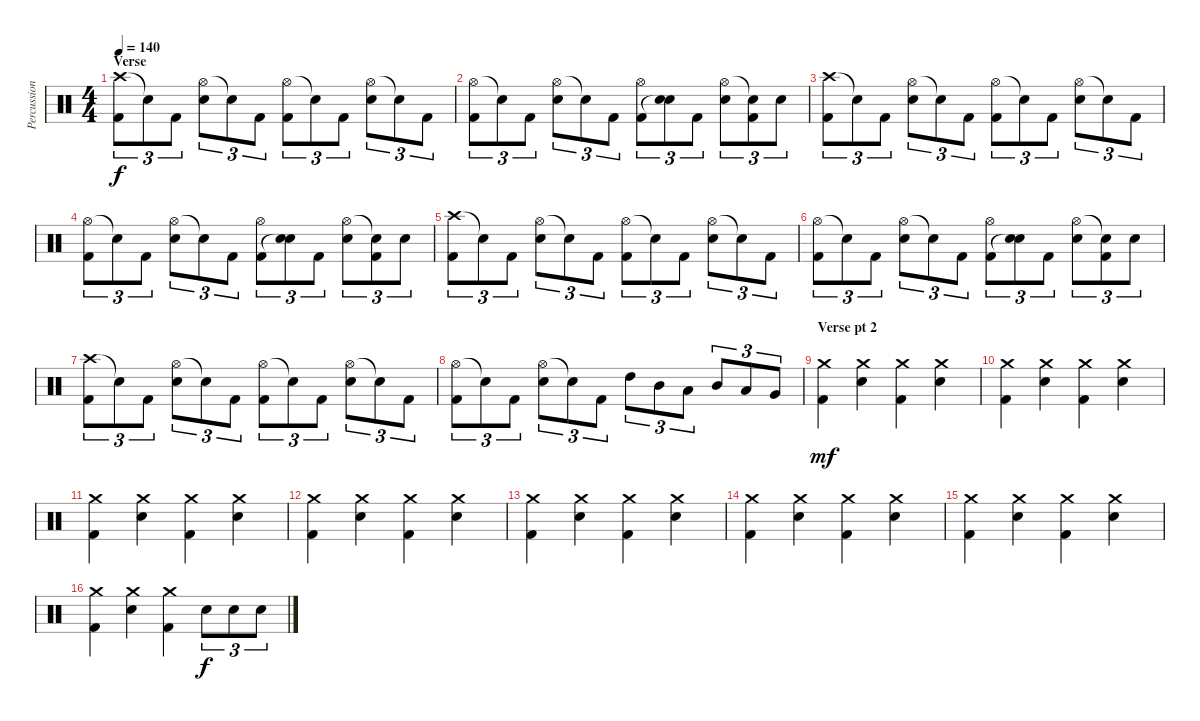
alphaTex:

\track ("Percussion" "Percussion") {instrument percussion}
\staff {score}
\articulation defaults
\ts (4 4)
\section ("" "Verse")
\tempo 140
\clef neutral
\ks c
("Crash high (hit)" "Kick (hit) 2").8{tu (3 2) dy f} "Snare (hit)"{t}.8{tu (3 2)} "Kick (hit) 2".8{tu (3 2)} ("Hi-Hat (open)" "Electric Snare (hit)").8{tu (3 2)} "Snare (hit)"{t}.8{tu (3 2)} "Kick (hit) 2".8{tu (3 2)} ("Hi-Hat (open)" "Kick (hit) 2").8{tu (3 2)} "Snare (hit)"{t}.8{tu (3 2)} "Kick (hit) 2".8{tu (3 2)} ("Hi-Hat (open)" "Electric Snare (hit)").8{tu (3 2)} "Snare (hit)"{t}.8{tu (3 2)} "Kick (hit) 2".8{tu (3 2)} |
("Hi-Hat (open)" "Kick (hit) 2").8{tu (3 2)} "Snare (hit)"{t}.8{tu (3 2)} "Kick (hit) 2".8{tu (3 2)} ("Hi-Hat (open)" "Electric Snare (hit)").8{tu (3 2)} "Snare (hit)"{t}.8{tu (3 2)} "Kick (hit) 2".8{tu (3 2)} ("Hi-Hat (open)" "Kick (hit) 2").8{tu (3 2)} ("Electric Snare (hit)" "Snare (hit)"{t}).8{tu (3 2)} "Kick (hit) 2".8{tu (3 2)} ("Hi-Hat (open)" "Electric Snare (hit)").8{tu (3 2)} ("Snare (hit)"{t} "Kick (hit) 2").8{tu (3 2)} "Electric Snare (hit)".8{tu (3 2)} |
("Crash high (hit)" "Kick (hit) 2").8{tu (3 2)} "Snare (hit)"{t}.8{tu (3 2)} "Kick (hit) 2".8{tu (3 2)} ("Hi-Hat (open)" "Electric Snare (hit)").8{tu (3 2)} "Snare (hit)"{t}.8{tu (3 2)} "Kick (hit) 2".8{tu (3 2)} ("Hi-Hat (open)" "Kick (hit) 2").8{tu (3 2)} "Snare (hit)"{t}.8{tu (3 2)} "Kick (hit) 2".8{tu (3 2)} ("Hi-Hat (open)" "Electric Snare (hit)").8{tu (3 2)} "Snare (hit)"{t}.8{tu (3 2)} "Kick (hit) 2".8{tu (3 2)} |
("Hi-Hat (open)" "Kick (hit) 2").8{tu (3 2)} "Snare (hit)"{t}.8{tu (3 2)} "Kick (hit) 2".8{tu (3 2)} ("Hi-Hat (open)" "Electric Snare (hit)").8{tu (3 2)} "Snare (hit)"{t}.8{tu (3 2)} "Kick (hit) 2".8{tu (3 2)} ("Hi-Hat (open)" "Kick (hit) 2").8{tu (3 2)} ("Electric Snare (hit)" "Snare (hit)"{t}).8{tu (3 2)} "Kick (hit) 2".8{tu (3 2)} ("Hi-Hat (open)" "Electric Snare (hit)").8{tu (3 2)} ("Snare (hit)"{t} "Kick (hit) 2").8{tu (3 2)} "Electric Snare (hit)".8{tu (3 2)} |
("Crash high (hit)" "Kick (hit) 2").8{tu (3 2)} "Snare (hit)"{t}.8{tu (3 2)} "Kick (hit) 2".8{tu (3 2)} ("Hi-Hat (open)" "Electric Snare (hit)").8{tu (3 2)} "Snare (hit)"{t}.8{tu (3 2)} "Kick (hit) 2".8{tu (3 2)} ("Hi-Hat (open)" "Kick (hit) 2").8{tu (3 2)} "Snare (hit)"{t}.8{tu (3 2)} "Kick (hit) 2".8{tu (3 2)} ("Hi-Hat (open)" "Electric Snare (hit)").8{tu (3 2)} "Snare (hit)"{t}.8{tu (3 2)} "Kick (hit) 2".8{tu (3 2)} |
("Hi-Hat (open)" "Kick (hit) 2").8{tu (3 2)} "Snare (hit)"{t}.8{tu (3 2)} "Kick (hit) 2".8{tu (3 2)} ("Hi-Hat (open)" "Electric Snare (hit)").8{tu (3 2)} "Snare (hit)"{t}.8{tu (3 2)} "Kick (hit) 2".8{tu (3 2)} ("Hi-Hat (open)" "Kick (hit) 2").8{tu (3 2)} ("Electric Snare (hit)" "Snare (hit)"{t}).8{tu (3 2)} "Kick (hit) 2".8{tu (3 2)} ("Hi-Hat (open)" "Electric Snare (hit)").8{tu (3 2)} ("Snare (hit)"{t} "Kick (hit) 2").8{tu (3 2)} "Electric Snare (hit)".8{tu (3 2)} |
("Crash high (hit)" "Kick (hit) 2").8{tu (3 2)} "Snare (hit)"{t}.8{tu (3 2)} "Kick (hit) 2".8{tu (3 2)} ("Hi-Hat (open)" "Electric Snare (hit)").8{tu (3 2)} "Snare (hit)"{t}.8{tu (3 2)} "Kick (hit) 2".8{tu (3 2)} ("Hi-Hat (open)" "Kick (hit) 2").8{tu (3 2)} "Snare (hit)"{t}.8{tu (3 2)} "Kick (hit) 2".8{tu (3 2)} ("Hi-Hat (open)" "Electric Snare (hit)").8{tu (3 2)} "Snare (hit)"{t}.8{tu (3 2)} "Kick (hit) 2".8{tu (3 2)} |
("Hi-Hat (open)" "Kick (hit) 2").8{tu (3 2)} "Snare (hit)"{t}.8{tu (3 2)} "Kick (hit) 2".8{tu (3 2)} ("Hi-Hat (open)" "Electric Snare (hit)").8{tu (3 2)} "Snare (hit)"{t}.8{tu (3 2)} "Kick (hit) 2".8{tu (3 2)} "High Tom (hit)".8{tu (3 2)} "Mid Tom (hit)".8{tu (3 2)} "Low Tom (hit)".8{tu (3 2)} "Mid Tom (hit)".8{tu (3 2)} "Low Tom (hit)".8{tu (3 2)} "Very Low Tom (hit)".8{tu (3 2)} |
\section ("" "Verse pt 2")
("Crash medium (hit)" "Kick (hit) 2").4{dy mf} ("Crash medium (hit)" "Electric Snare (hit)").4 ("Crash medium (hit)" "Kick (hit) 2").4 ("Crash medium (hit)" "Electric Snare (hit)").4 |
("Crash medium (hit)" "Kick (hit) 2").4 ("Crash medium (hit)" "Electric Snare (hit)").4 ("Crash medium (hit)" "Kick (hit) 2").4 ("Crash medium (hit)" "Electric Snare (hit)").4 |
("Crash medium (hit)" "Kick (hit) 2").4 ("Crash medium (hit)" "Electric Snare (hit)").4 ("Crash medium (hit)" "Kick (hit) 2").4 ("Crash medium (hit)" "Electric Snare (hit)").4 |
("Crash medium (hit)" "Kick (hit) 2").4 ("Crash medium (hit)" "Electric Snare (hit)").4 ("Crash medium (hit)" "Kick (hit) 2").4 ("Crash medium (hit)" "Electric Snare (hit)").4 |
("Crash medium (hit)" "Kick (hit) 2").4 ("Crash medium (hit)" "Electric Snare (hit)").4 ("Crash medium (hit)" "Kick (hit) 2").4 ("Crash medium (hit)" "Electric Snare (hit)").4 |
("Crash medium (hit)" "Kick (hit) 2").4 ("Crash medium (hit)" "Electric Snare (hit)").4 ("Crash medium (hit)" "Kick (hit) 2").4 ("Crash medium (hit)" "Electric Snare (hit)").4 |
("Crash medium (hit)" "Kick (hit) 2").4 ("Crash medium (hit)" "Electric Snare (hit)").4 ("Crash medium (hit)" "Kick (hit) 2").4 ("Crash medium (hit)" "Electric Snare (hit)").4 |
("Crash medium (hit)" "Kick (hit) 2").4 ("Crash medium (hit)" "Electric Snare (hit)").4 ("Crash medium (hit)" "Kick (hit) 2").4 "Electric Snare (hit)".8{tu (3 2) dy f} "Electric Snare (hit)".8{tu (3 2)} "Electric Snare (hit)".8{tu (3 2)}
